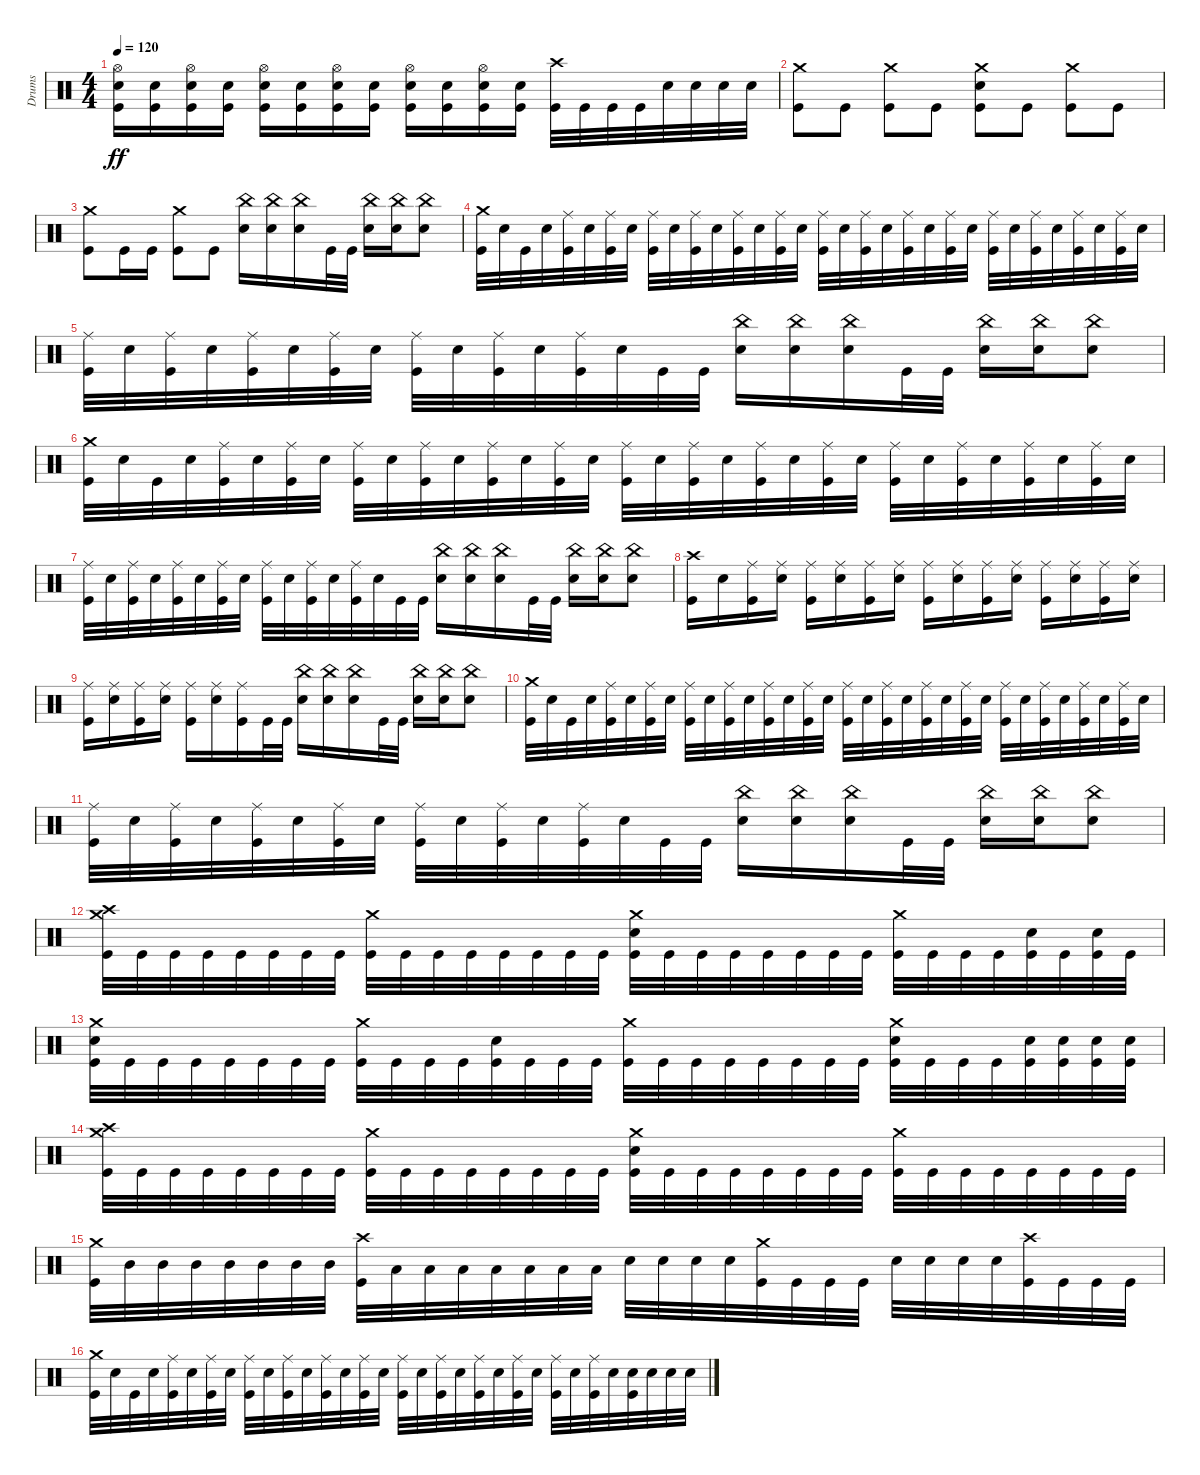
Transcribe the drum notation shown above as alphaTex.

\track ("Drums" "Drums") {instrument percussion}
\staff {score}
\articulation defaults
\ts (4 4)
\tempo 120
\clef neutral
\ks c
("Kick (hit)" "Snare (hit) 2" "Hi-Hat (open)").16{dy ff} ("Kick (hit)" "Snare (hit) 2").16 ("Kick (hit)" "Snare (hit) 2" "Hi-Hat (open)").16 ("Kick (hit)" "Snare (hit) 2").16 ("Kick (hit)" "Snare (hit) 2" "Hi-Hat (open)").16 ("Kick (hit)" "Snare (hit) 2").16 ("Kick (hit)" "Snare (hit) 2" "Hi-Hat (open)").16 ("Kick (hit)" "Snare (hit) 2").16 ("Kick (hit)" "Snare (hit) 2" "Hi-Hat (open)").16 ("Kick (hit)" "Snare (hit) 2").16 ("Kick (hit)" "Snare (hit) 2" "Hi-Hat (open)").16 ("Kick (hit)" "Snare (hit) 2").16 ("Kick (hit)" "Crash high (hit)").32 "Kick (hit)".32 "Kick (hit)".32 "Kick (hit)".32 "Snare (hit) 2".32 "Snare (hit) 2".32 "Snare (hit) 2".32 "Snare (hit) 2".32 |
("Kick (hit)" "Crash medium (hit)").8 "Kick (hit)".8 ("Kick (hit)" "Crash medium (hit)").8 "Kick (hit)".8 ("Kick (hit)" "Crash medium (hit)" "Snare (hit) 2").8 "Kick (hit)".8 ("Kick (hit)" "Crash medium (hit)").8 "Kick (hit)".8 |
("Kick (hit)" "Crash medium (hit)").8 "Kick (hit)".16 "Kick (hit)".16 ("Kick (hit)" "Crash medium (hit)").8 "Kick (hit)".8 ("Snare (hit) 2" "China (hit)").16 ("Snare (hit) 2" "China (hit)").16 ("Snare (hit) 2" "China (hit)").16 "Kick (hit)".32 "Kick (hit)".32 ("Snare (hit) 2" "China (hit)").16 ("Snare (hit) 2" "China (hit)").16 ("Snare (hit) 2" "China (hit)").8 |
("Kick (hit)" "Crash medium (hit)").32 "Snare (hit) 2".32 "Kick (hit)".32 "Snare (hit) 2".32 ("Kick (hit)" "Ride (middle)").32 "Snare (hit) 2".32 ("Kick (hit)" "Ride (middle)").32 "Snare (hit) 2".32 ("Kick (hit)" "Ride (middle)").32 "Snare (hit) 2".32 ("Kick (hit)" "Ride (middle)").32 "Snare (hit) 2".32 ("Kick (hit)" "Ride (middle)").32 "Snare (hit) 2".32 ("Kick (hit)" "Ride (middle)").32 "Snare (hit) 2".32 ("Kick (hit)" "Ride (middle)").32 "Snare (hit) 2".32 ("Kick (hit)" "Ride (middle)").32 "Snare (hit) 2".32 ("Kick (hit)" "Ride (middle)").32 "Snare (hit) 2".32 ("Kick (hit)" "Ride (middle)").32 "Snare (hit) 2".32 ("Kick (hit)" "Ride (middle)").32 "Snare (hit) 2".32 ("Kick (hit)" "Ride (middle)").32 "Snare (hit) 2".32 ("Kick (hit)" "Ride (middle)").32 "Snare (hit) 2".32 ("Kick (hit)" "Ride (middle)").32 "Snare (hit) 2".32 |
("Kick (hit)" "Ride (middle)").32 "Snare (hit) 2".32 ("Kick (hit)" "Ride (middle)").32 "Snare (hit) 2".32 ("Kick (hit)" "Ride (middle)").32 "Snare (hit) 2".32 ("Kick (hit)" "Ride (middle)").32 "Snare (hit) 2".32 ("Kick (hit)" "Ride (middle)").32 "Snare (hit) 2".32 ("Kick (hit)" "Ride (middle)").32 "Snare (hit) 2".32 ("Kick (hit)" "Ride (middle)").32 "Snare (hit) 2".32 "Kick (hit)".32 "Kick (hit)".32 ("Snare (hit) 2" "China (hit)").16 ("Snare (hit) 2" "China (hit)").16 ("Snare (hit) 2" "China (hit)").16 "Kick (hit)".32 "Kick (hit)".32 ("Snare (hit) 2" "China (hit)").16 ("Snare (hit) 2" "China (hit)").16 ("Snare (hit) 2" "China (hit)").8 |
("Kick (hit)" "Crash medium (hit)").32 "Snare (hit) 2".32 "Kick (hit)".32 "Snare (hit) 2".32 ("Kick (hit)" "Ride (middle)").32 "Snare (hit) 2".32 ("Kick (hit)" "Ride (middle)").32 "Snare (hit) 2".32 ("Kick (hit)" "Ride (middle)").32 "Snare (hit) 2".32 ("Kick (hit)" "Ride (middle)").32 "Snare (hit) 2".32 ("Kick (hit)" "Ride (middle)").32 "Snare (hit) 2".32 ("Kick (hit)" "Ride (middle)").32 "Snare (hit) 2".32 ("Kick (hit)" "Ride (middle)").32 "Snare (hit) 2".32 ("Kick (hit)" "Ride (middle)").32 "Snare (hit) 2".32 ("Kick (hit)" "Ride (middle)").32 "Snare (hit) 2".32 ("Kick (hit)" "Ride (middle)").32 "Snare (hit) 2".32 ("Kick (hit)" "Ride (middle)").32 "Snare (hit) 2".32 ("Kick (hit)" "Ride (middle)").32 "Snare (hit) 2".32 ("Kick (hit)" "Ride (middle)").32 "Snare (hit) 2".32 ("Kick (hit)" "Ride (middle)").32 "Snare (hit) 2".32 |
("Kick (hit)" "Ride (middle)").32 "Snare (hit) 2".32 ("Kick (hit)" "Ride (middle)").32 "Snare (hit) 2".32 ("Kick (hit)" "Ride (middle)").32 "Snare (hit) 2".32 ("Kick (hit)" "Ride (middle)").32 "Snare (hit) 2".32 ("Kick (hit)" "Ride (middle)").32 "Snare (hit) 2".32 ("Kick (hit)" "Ride (middle)").32 "Snare (hit) 2".32 ("Kick (hit)" "Ride (middle)").32 "Snare (hit) 2".32 "Kick (hit)".32 "Kick (hit)".32 ("Snare (hit) 2" "China (hit)").16 ("Snare (hit) 2" "China (hit)").16 ("Snare (hit) 2" "China (hit)").16 "Kick (hit)".32 "Kick (hit)".32 ("Snare (hit) 2" "China (hit)").16 ("Snare (hit) 2" "China (hit)").16 ("Snare (hit) 2" "China (hit)").8 |
("Kick (hit)" "Crash high (hit)").16 "Snare (hit) 2".16 ("Kick (hit)" "Ride (middle)").16 ("Snare (hit) 2" "Ride (middle)").16 ("Kick (hit)" "Ride (middle)").16 ("Snare (hit) 2" "Ride (middle)").16 ("Kick (hit)" "Ride (middle)").16 ("Snare (hit) 2" "Ride (middle)").16 ("Kick (hit)" "Ride (middle)").16 ("Snare (hit) 2" "Ride (middle)").16 ("Kick (hit)" "Ride (middle)").16 ("Snare (hit) 2" "Ride (middle)").16 ("Kick (hit)" "Ride (middle)").16 ("Snare (hit) 2" "Ride (middle)").16 ("Kick (hit)" "Ride (middle)").16 ("Snare (hit) 2" "Ride (middle)").16 |
("Kick (hit)" "Ride (middle)").16 ("Snare (hit) 2" "Ride (middle)").16 ("Kick (hit)" "Ride (middle)").16 ("Snare (hit) 2" "Ride (middle)").16 ("Kick (hit)" "Ride (middle)").16 ("Snare (hit) 2" "Ride (middle)").16 ("Kick (hit)" "Ride (middle)").16 "Kick (hit)".32 "Kick (hit)".32 ("Snare (hit) 2" "China (hit)").16 ("Snare (hit) 2" "China (hit)").16 ("Snare (hit) 2" "China (hit)").16 "Kick (hit)".32 "Kick (hit)".32 ("Snare (hit) 2" "China (hit)").16 ("Snare (hit) 2" "China (hit)").16 ("Snare (hit) 2" "China (hit)").8 |
("Kick (hit)" "Crash medium (hit)").32 "Snare (hit) 2".32 "Kick (hit)".32 "Snare (hit) 2".32 ("Kick (hit)" "Ride (middle)").32 "Snare (hit) 2".32 ("Kick (hit)" "Ride (middle)").32 "Snare (hit) 2".32 ("Kick (hit)" "Ride (middle)").32 "Snare (hit) 2".32 ("Kick (hit)" "Ride (middle)").32 "Snare (hit) 2".32 ("Kick (hit)" "Ride (middle)").32 "Snare (hit) 2".32 ("Kick (hit)" "Ride (middle)").32 "Snare (hit) 2".32 ("Kick (hit)" "Ride (middle)").32 "Snare (hit) 2".32 ("Kick (hit)" "Ride (middle)").32 "Snare (hit) 2".32 ("Kick (hit)" "Ride (middle)").32 "Snare (hit) 2".32 ("Kick (hit)" "Ride (middle)").32 "Snare (hit) 2".32 ("Kick (hit)" "Ride (middle)").32 "Snare (hit) 2".32 ("Kick (hit)" "Ride (middle)").32 "Snare (hit) 2".32 ("Kick (hit)" "Ride (middle)").32 "Snare (hit) 2".32 ("Kick (hit)" "Ride (middle)").32 "Snare (hit) 2".32 |
("Kick (hit)" "Ride (middle)").32 "Snare (hit) 2".32 ("Kick (hit)" "Ride (middle)").32 "Snare (hit) 2".32 ("Kick (hit)" "Ride (middle)").32 "Snare (hit) 2".32 ("Kick (hit)" "Ride (middle)").32 "Snare (hit) 2".32 ("Kick (hit)" "Ride (middle)").32 "Snare (hit) 2".32 ("Kick (hit)" "Ride (middle)").32 "Snare (hit) 2".32 ("Kick (hit)" "Ride (middle)").32 "Snare (hit) 2".32 "Kick (hit)".32 "Kick (hit)".32 ("Snare (hit) 2" "China (hit)").16 ("Snare (hit) 2" "China (hit)").16 ("Snare (hit) 2" "China (hit)").16 "Kick (hit)".32 "Kick (hit)".32 ("Snare (hit) 2" "China (hit)").16 ("Snare (hit) 2" "China (hit)").16 ("Snare (hit) 2" "China (hit)").8 |
("Kick (hit)" "Crash medium (hit)" "Crash high (hit)").32 "Kick (hit)".32 "Kick (hit)".32 "Kick (hit)".32 "Kick (hit)".32 "Kick (hit)".32 "Kick (hit)".32 "Kick (hit)".32 ("Kick (hit)" "Crash medium (hit)").32 "Kick (hit)".32 "Kick (hit)".32 "Kick (hit)".32 "Kick (hit)".32 "Kick (hit)".32 "Kick (hit)".32 "Kick (hit)".32 ("Kick (hit)" "Crash medium (hit)" "Snare (hit) 2").32 "Kick (hit)".32 "Kick (hit)".32 "Kick (hit)".32 "Kick (hit)".32 "Kick (hit)".32 "Kick (hit)".32 "Kick (hit)".32 ("Kick (hit)" "Crash medium (hit)").32 "Kick (hit)".32 "Kick (hit)".32 "Kick (hit)".32 ("Kick (hit)" "Snare (hit) 2").32 "Kick (hit)".32 ("Kick (hit)" "Snare (hit) 2").32 "Kick (hit)".32 |
("Kick (hit)" "Crash medium (hit)" "Snare (hit) 2").32 "Kick (hit)".32 "Kick (hit)".32 "Kick (hit)".32 "Kick (hit)".32 "Kick (hit)".32 "Kick (hit)".32 "Kick (hit)".32 ("Kick (hit)" "Crash medium (hit)").32 "Kick (hit)".32 "Kick (hit)".32 "Kick (hit)".32 ("Kick (hit)" "Snare (hit) 2").32 "Kick (hit)".32 "Kick (hit)".32 "Kick (hit)".32 ("Kick (hit)" "Crash medium (hit)").32 "Kick (hit)".32 "Kick (hit)".32 "Kick (hit)".32 "Kick (hit)".32 "Kick (hit)".32 "Kick (hit)".32 "Kick (hit)".32 ("Kick (hit)" "Crash medium (hit)" "Snare (hit) 2").32 "Kick (hit)".32 "Kick (hit)".32 "Kick (hit)".32 ("Kick (hit)" "Snare (hit) 2").32 ("Kick (hit)" "Snare (hit) 2").32 ("Kick (hit)" "Snare (hit) 2").32 ("Kick (hit)" "Snare (hit) 2").32 |
("Kick (hit)" "Crash medium (hit)" "Crash high (hit)").32 "Kick (hit)".32 "Kick (hit)".32 "Kick (hit)".32 "Kick (hit)".32 "Kick (hit)".32 "Kick (hit)".32 "Kick (hit)".32 ("Kick (hit)" "Crash medium (hit)").32 "Kick (hit)".32 "Kick (hit)".32 "Kick (hit)".32 "Kick (hit)".32 "Kick (hit)".32 "Kick (hit)".32 "Kick (hit)".32 ("Kick (hit)" "Crash medium (hit)" "Snare (hit) 2").32 "Kick (hit)".32 "Kick (hit)".32 "Kick (hit)".32 "Kick (hit)".32 "Kick (hit)".32 "Kick (hit)".32 "Kick (hit)".32 ("Kick (hit)" "Crash medium (hit)").32 "Kick (hit)".32 "Kick (hit)".32 "Kick (hit)".32 "Kick (hit)".32 "Kick (hit)".32 "Kick (hit)".32 "Kick (hit)".32 |
("Kick (hit)" "Crash medium (hit)").32 "Mid Tom (hit)".32 "Mid Tom (hit)".32 "Mid Tom (hit)".32 "Mid Tom (hit)".32 "Mid Tom (hit)".32 "Mid Tom (hit)".32 "Mid Tom (hit)".32 ("Kick (hit)" "Crash high (hit)").32 "Low Tom (hit)".32 "Low Tom (hit)".32 "Low Tom (hit)".32 "Low Tom (hit)".32 "Low Tom (hit)".32 "Low Tom (hit)".32 "Low Tom (hit)".32 "Snare (hit) 2".32 "Snare (hit) 2".32 "Snare (hit) 2".32 "Snare (hit) 2".32 ("Kick (hit)" "Crash medium (hit)").32 "Kick (hit)".32 "Kick (hit)".32 "Kick (hit)".32 "Snare (hit) 2".32 "Snare (hit) 2".32 "Snare (hit) 2".32 "Snare (hit) 2".32 ("Kick (hit)" "Crash high (hit)").32 "Kick (hit)".32 "Kick (hit)".32 "Kick (hit)".32 |
("Kick (hit)" "Crash medium (hit)").32 "Snare (hit) 2".32 "Kick (hit)".32 "Snare (hit) 2".32 ("Kick (hit)" "Ride (middle)").32 "Snare (hit) 2".32 ("Kick (hit)" "Ride (middle)").32 "Snare (hit) 2".32 ("Kick (hit)" "Ride (middle)").32 "Snare (hit) 2".32 ("Kick (hit)" "Ride (middle)").32 "Snare (hit) 2".32 ("Kick (hit)" "Ride (middle)").32 "Snare (hit) 2".32 ("Kick (hit)" "Ride (middle)").32 "Snare (hit) 2".32 ("Kick (hit)" "Ride (middle)").32 "Snare (hit) 2".32 ("Kick (hit)" "Ride (middle)").32 "Snare (hit) 2".32 ("Kick (hit)" "Ride (middle)").32 "Snare (hit) 2".32 ("Kick (hit)" "Ride (middle)").32 "Snare (hit) 2".32 ("Kick (hit)" "Ride (middle)").32 "Snare (hit) 2".32 ("Kick (hit)" "Ride (middle)").32 "Snare (hit) 2".32 ("Snare (hit) 2" "Kick (hit)").32 "Snare (hit) 2".32 "Snare (hit) 2".32 "Snare (hit) 2".32
